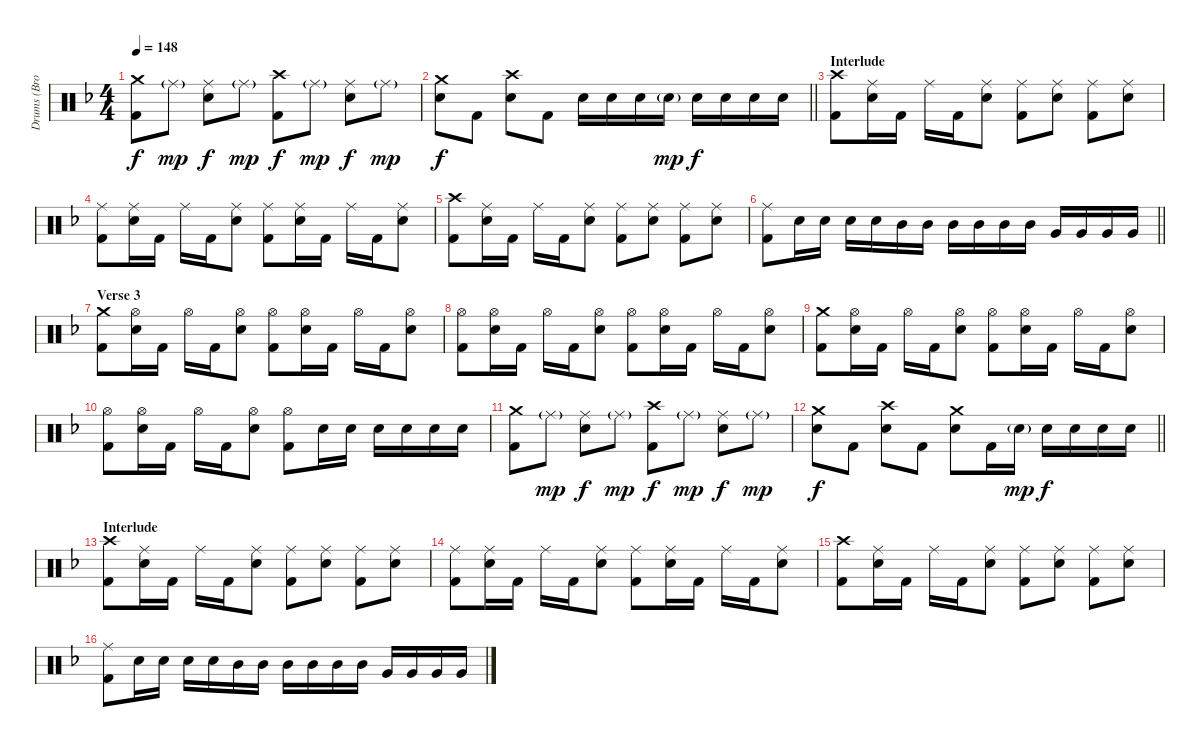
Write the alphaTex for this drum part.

\track ("Drums (Brooks Wackerman)" "Drums (Bro") {instrument percussion}
\staff {score}
\articulation defaults
\ts (4 4)
\tempo 148
\clef neutral
\ks f
("Crash medium (hit)" "Kick (hit) 2").8{dy f} "Ride (middle)"{g}.8{dy mp} ("Ride (middle)" "Snare (hit) 2").8{dy f} "Ride (middle)"{g}.8{dy mp} ("Crash high (hit)" "Kick (hit) 2").8{dy f} "Ride (middle)"{g}.8{dy mp} ("Ride (middle)" "Snare (hit) 2").8{dy f} "Ride (middle)"{g}.8{dy mp} |
\barLineRight lightlight
("Crash medium (hit)" "Snare (hit) 2").8{dy f} "Kick (hit) 2".8 ("Crash high (hit)" "Snare (hit) 2").8 "Kick (hit) 2".8 "Snare (hit) 2".16 "Snare (hit) 2".16 "Snare (hit) 2".16 "Snare (hit) 2"{g}.16{dy mp} "Snare (hit) 2".16{dy f} "Snare (hit) 2".16 "Snare (hit) 2".16 "Snare (hit) 2".16 |
\section ("" "Interlude")
("Crash high (hit)" "Kick (hit) 2").8 ("Ride (middle)" "Snare (hit) 2").16 "Kick (hit) 2".16 "Ride (middle)".16 "Kick (hit) 2".16 ("Ride (middle)" "Snare (hit) 2").8 ("Ride (middle)" "Kick (hit) 2").8 ("Ride (middle)" "Snare (hit) 2").8 ("Ride (middle)" "Kick (hit) 2").8 ("Ride (middle)" "Snare (hit) 2").8 |
("Ride (middle)" "Kick (hit) 2").8 ("Ride (middle)" "Snare (hit) 2").16 "Kick (hit) 2".16 "Ride (middle)".16 "Kick (hit) 2".16 ("Ride (middle)" "Snare (hit) 2").8 ("Ride (middle)" "Kick (hit) 2").8 ("Ride (middle)" "Snare (hit) 2").16 "Kick (hit) 2".16 "Ride (middle)".16 "Kick (hit) 2".16 ("Ride (middle)" "Snare (hit) 2").8 |
("Crash high (hit)" "Kick (hit) 2").8 ("Ride (middle)" "Snare (hit) 2").16 "Kick (hit) 2".16 "Ride (middle)".16 "Kick (hit) 2".16 ("Ride (middle)" "Snare (hit) 2").8 ("Ride (middle)" "Kick (hit) 2").8 ("Ride (middle)" "Snare (hit) 2").8 ("Ride (middle)" "Kick (hit) 2").8 ("Ride (middle)" "Snare (hit) 2").8 |
\barLineRight lightlight
("Ride (middle)" "Kick (hit) 2").8 "Snare (hit) 2".16 "Snare (hit) 2".16 "Snare (hit) 2".16 "Snare (hit) 2".16 "Mid Tom (hit)".16 "Mid Tom (hit)".16 "Mid Tom (hit)".16 "Mid Tom (hit)".16 "Mid Tom (hit)".16 "Mid Tom (hit)".16 "Very Low Tom (hit)".16 "Very Low Tom (hit)".16 "Very Low Tom (hit)".16 "Very Low Tom (hit)".16 |
\section ("" "Verse 3")
("Crash medium (hit)" "Kick (hit) 2").8 ("Hi-Hat (open)" "Snare (hit) 2").16 "Kick (hit) 2".16 "Hi-Hat (open)".16 "Kick (hit) 2".16 ("Hi-Hat (open)" "Snare (hit) 2").8 ("Hi-Hat (open)" "Kick (hit) 2").8 ("Hi-Hat (open)" "Snare (hit) 2").16 "Kick (hit) 2".16 "Hi-Hat (open)".16 "Kick (hit) 2".16 ("Hi-Hat (open)" "Snare (hit) 2").8 |
("Hi-Hat (open)" "Kick (hit) 2").8 ("Hi-Hat (open)" "Snare (hit) 2").16 "Kick (hit) 2".16 "Hi-Hat (open)".16 "Kick (hit) 2".16 ("Hi-Hat (open)" "Snare (hit) 2").8 ("Hi-Hat (open)" "Kick (hit) 2").8 ("Hi-Hat (open)" "Snare (hit) 2").16 "Kick (hit) 2".16 "Hi-Hat (open)".16 "Kick (hit) 2".16 ("Hi-Hat (open)" "Snare (hit) 2").8 |
("Crash medium (hit)" "Kick (hit) 2").8 ("Hi-Hat (open)" "Snare (hit) 2").16 "Kick (hit) 2".16 "Hi-Hat (open)".16 "Kick (hit) 2".16 ("Hi-Hat (open)" "Snare (hit) 2").8 ("Hi-Hat (open)" "Kick (hit) 2").8 ("Hi-Hat (open)" "Snare (hit) 2").16 "Kick (hit) 2".16 "Hi-Hat (open)".16 "Kick (hit) 2".16 ("Hi-Hat (open)" "Snare (hit) 2").8 |
("Hi-Hat (open)" "Kick (hit) 2").8 ("Hi-Hat (open)" "Snare (hit) 2").16 "Kick (hit) 2".16 "Hi-Hat (open)".16 "Kick (hit) 2".16 ("Hi-Hat (open)" "Snare (hit) 2").8 ("Hi-Hat (open)" "Kick (hit) 2").8 "Snare (hit) 2".16 "Snare (hit) 2".16 "Snare (hit) 2".16 "Snare (hit) 2".16 "Snare (hit) 2".16 "Snare (hit) 2".16 |
("Crash medium (hit)" "Kick (hit) 2").8 "Ride (middle)"{g}.8{dy mp} ("Ride (middle)" "Snare (hit) 2").8{dy f} "Ride (middle)"{g}.8{dy mp} ("Crash high (hit)" "Kick (hit) 2").8{dy f} "Ride (middle)"{g}.8{dy mp} ("Ride (middle)" "Snare (hit) 2").8{dy f} "Ride (middle)"{g}.8{dy mp} |
\barLineRight lightlight
("Crash medium (hit)" "Snare (hit) 2").8{dy f} "Kick (hit) 2".8 ("Crash high (hit)" "Snare (hit) 2").8 "Kick (hit) 2".8 ("Crash medium (hit)" "Snare (hit) 2").8 "Kick (hit) 2".16 "Snare (hit) 2"{g}.16{dy mp} "Snare (hit) 2".16{dy f} "Snare (hit) 2".16 "Snare (hit) 2".16 "Snare (hit) 2".16 |
\section ("" "Interlude")
("Crash high (hit)" "Kick (hit) 2").8 ("Ride (middle)" "Snare (hit) 2").16 "Kick (hit) 2".16 "Ride (middle)".16 "Kick (hit) 2".16 ("Ride (middle)" "Snare (hit) 2").8 ("Ride (middle)" "Kick (hit) 2").8 ("Ride (middle)" "Snare (hit) 2").8 ("Ride (middle)" "Kick (hit) 2").8 ("Ride (middle)" "Snare (hit) 2").8 |
("Ride (middle)" "Kick (hit) 2").8 ("Ride (middle)" "Snare (hit) 2").16 "Kick (hit) 2".16 "Ride (middle)".16 "Kick (hit) 2".16 ("Ride (middle)" "Snare (hit) 2").8 ("Ride (middle)" "Kick (hit) 2").8 ("Ride (middle)" "Snare (hit) 2").16 "Kick (hit) 2".16 "Ride (middle)".16 "Kick (hit) 2".16 ("Ride (middle)" "Snare (hit) 2").8 |
("Crash high (hit)" "Kick (hit) 2").8 ("Ride (middle)" "Snare (hit) 2").16 "Kick (hit) 2".16 "Ride (middle)".16 "Kick (hit) 2".16 ("Ride (middle)" "Snare (hit) 2").8 ("Ride (middle)" "Kick (hit) 2").8 ("Ride (middle)" "Snare (hit) 2").8 ("Ride (middle)" "Kick (hit) 2").8 ("Ride (middle)" "Snare (hit) 2").8 |
("Ride (middle)" "Kick (hit) 2").8 "Snare (hit) 2".16 "Snare (hit) 2".16 "Snare (hit) 2".16 "Snare (hit) 2".16 "Mid Tom (hit)".16 "Mid Tom (hit)".16 "Mid Tom (hit)".16 "Mid Tom (hit)".16 "Mid Tom (hit)".16 "Mid Tom (hit)".16 "Very Low Tom (hit)".16 "Very Low Tom (hit)".16 "Very Low Tom (hit)".16 "Very Low Tom (hit)".16
